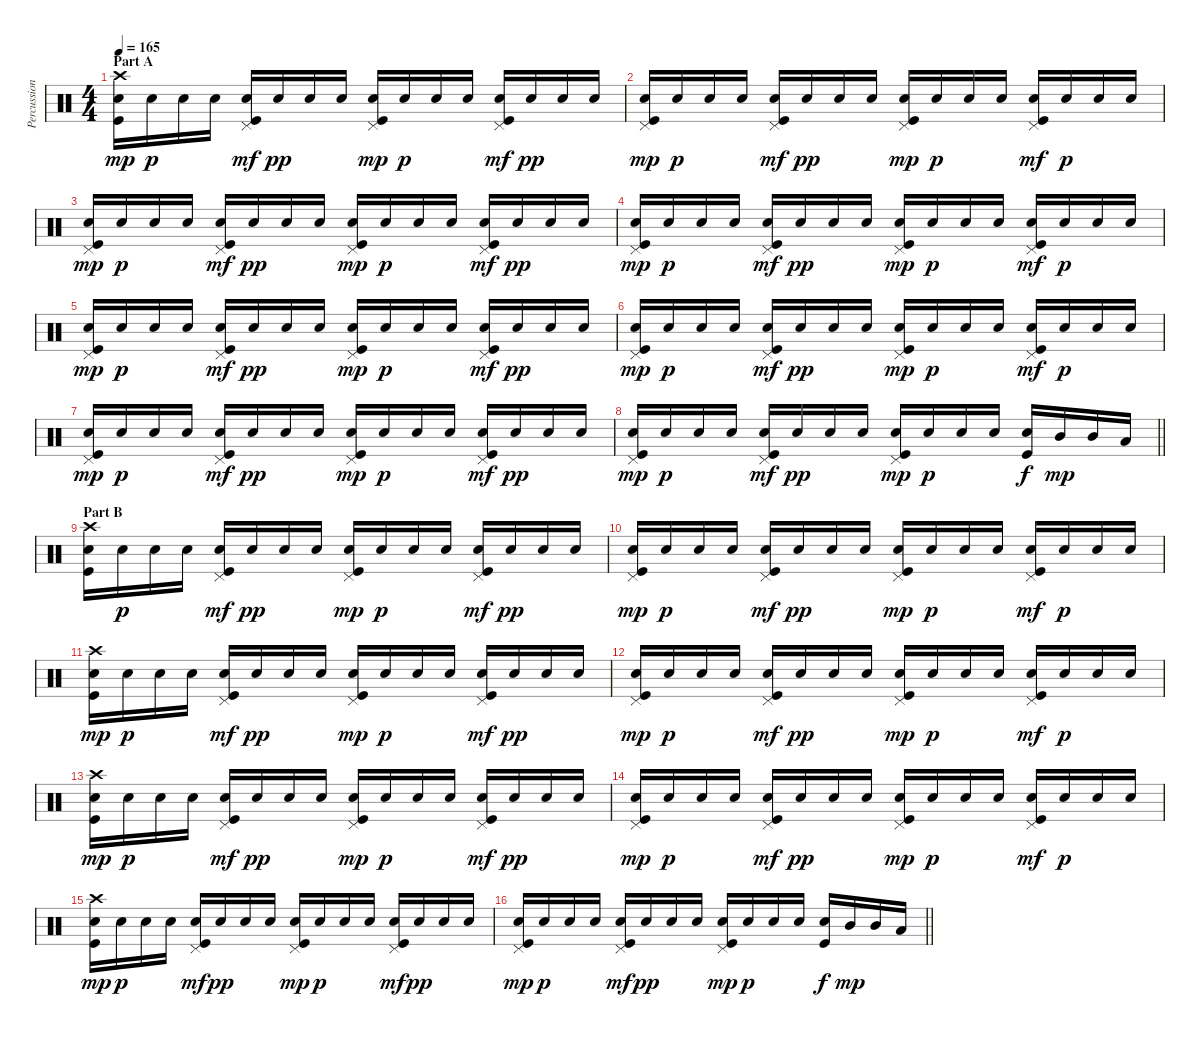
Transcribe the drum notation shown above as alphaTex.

\track ("Percussion" "Percussion") {instrument percussion}
\staff {score}
\articulation defaults
\ts (4 4)
\section ("" "Part A")
\tempo 165
\clef neutral
\ks c
("Crash high (hit)" "Electric Snare (hit)" "Kick (hit)").16{dy mp} "Electric Snare (hit)".16{dy p} "Electric Snare (hit)".16 "Electric Snare (hit)".16 ("Pedal Hi-Hat (hit)" "Electric Snare (hit)" "Kick (hit)").16{dy mf} "Electric Snare (hit)".16{dy pp} "Electric Snare (hit)".16 "Electric Snare (hit)".16 ("Pedal Hi-Hat (hit)" "Electric Snare (hit)" "Kick (hit)").16{dy mp} "Electric Snare (hit)".16{dy p} "Electric Snare (hit)".16 "Electric Snare (hit)".16 ("Pedal Hi-Hat (hit)" "Electric Snare (hit)" "Kick (hit)").16{dy mf} "Electric Snare (hit)".16{dy pp} "Electric Snare (hit)".16 "Electric Snare (hit)".16 |
("Pedal Hi-Hat (hit)" "Electric Snare (hit)" "Kick (hit)").16{dy mp} "Electric Snare (hit)".16{dy p} "Electric Snare (hit)".16 "Electric Snare (hit)".16 ("Pedal Hi-Hat (hit)" "Electric Snare (hit)" "Kick (hit)").16{dy mf} "Electric Snare (hit)".16{dy pp} "Electric Snare (hit)".16 "Electric Snare (hit)".16 ("Pedal Hi-Hat (hit)" "Electric Snare (hit)" "Kick (hit)").16{dy mp} "Electric Snare (hit)".16{dy p} "Electric Snare (hit)".16 "Electric Snare (hit)".16 ("Pedal Hi-Hat (hit)" "Electric Snare (hit)" "Kick (hit)").16{dy mf} "Electric Snare (hit)".16{dy p} "Electric Snare (hit)".16 "Electric Snare (hit)".16 |
("Pedal Hi-Hat (hit)" "Electric Snare (hit)" "Kick (hit)").16{dy mp} "Electric Snare (hit)".16{dy p} "Electric Snare (hit)".16 "Electric Snare (hit)".16 ("Pedal Hi-Hat (hit)" "Electric Snare (hit)" "Kick (hit)").16{dy mf} "Electric Snare (hit)".16{dy pp} "Electric Snare (hit)".16 "Electric Snare (hit)".16 ("Pedal Hi-Hat (hit)" "Electric Snare (hit)" "Kick (hit)").16{dy mp} "Electric Snare (hit)".16{dy p} "Electric Snare (hit)".16 "Electric Snare (hit)".16 ("Pedal Hi-Hat (hit)" "Electric Snare (hit)" "Kick (hit)").16{dy mf} "Electric Snare (hit)".16{dy pp} "Electric Snare (hit)".16 "Electric Snare (hit)".16 |
("Pedal Hi-Hat (hit)" "Electric Snare (hit)" "Kick (hit)").16{dy mp} "Electric Snare (hit)".16{dy p} "Electric Snare (hit)".16 "Electric Snare (hit)".16 ("Pedal Hi-Hat (hit)" "Electric Snare (hit)" "Kick (hit)").16{dy mf} "Electric Snare (hit)".16{dy pp} "Electric Snare (hit)".16 "Electric Snare (hit)".16 ("Pedal Hi-Hat (hit)" "Electric Snare (hit)" "Kick (hit)").16{dy mp} "Electric Snare (hit)".16{dy p} "Electric Snare (hit)".16 "Electric Snare (hit)".16 ("Pedal Hi-Hat (hit)" "Electric Snare (hit)" "Kick (hit)").16{dy mf} "Electric Snare (hit)".16{dy p} "Electric Snare (hit)".16 "Electric Snare (hit)".16 |
("Pedal Hi-Hat (hit)" "Electric Snare (hit)" "Kick (hit)").16{dy mp} "Electric Snare (hit)".16{dy p} "Electric Snare (hit)".16 "Electric Snare (hit)".16 ("Pedal Hi-Hat (hit)" "Electric Snare (hit)" "Kick (hit)").16{dy mf} "Electric Snare (hit)".16{dy pp} "Electric Snare (hit)".16 "Electric Snare (hit)".16 ("Pedal Hi-Hat (hit)" "Electric Snare (hit)" "Kick (hit)").16{dy mp} "Electric Snare (hit)".16{dy p} "Electric Snare (hit)".16 "Electric Snare (hit)".16 ("Pedal Hi-Hat (hit)" "Electric Snare (hit)" "Kick (hit)").16{dy mf} "Electric Snare (hit)".16{dy pp} "Electric Snare (hit)".16 "Electric Snare (hit)".16 |
("Pedal Hi-Hat (hit)" "Electric Snare (hit)" "Kick (hit)").16{dy mp} "Electric Snare (hit)".16{dy p} "Electric Snare (hit)".16 "Electric Snare (hit)".16 ("Pedal Hi-Hat (hit)" "Electric Snare (hit)" "Kick (hit)").16{dy mf} "Electric Snare (hit)".16{dy pp} "Electric Snare (hit)".16 "Electric Snare (hit)".16 ("Pedal Hi-Hat (hit)" "Electric Snare (hit)" "Kick (hit)").16{dy mp} "Electric Snare (hit)".16{dy p} "Electric Snare (hit)".16 "Electric Snare (hit)".16 ("Pedal Hi-Hat (hit)" "Electric Snare (hit)" "Kick (hit)").16{dy mf} "Electric Snare (hit)".16{dy p} "Electric Snare (hit)".16 "Electric Snare (hit)".16 |
("Pedal Hi-Hat (hit)" "Electric Snare (hit)" "Kick (hit)").16{dy mp} "Electric Snare (hit)".16{dy p} "Electric Snare (hit)".16 "Electric Snare (hit)".16 ("Pedal Hi-Hat (hit)" "Electric Snare (hit)" "Kick (hit)").16{dy mf} "Electric Snare (hit)".16{dy pp} "Electric Snare (hit)".16 "Electric Snare (hit)".16 ("Pedal Hi-Hat (hit)" "Electric Snare (hit)" "Kick (hit)").16{dy mp} "Electric Snare (hit)".16{dy p} "Electric Snare (hit)".16 "Electric Snare (hit)".16 ("Pedal Hi-Hat (hit)" "Electric Snare (hit)" "Kick (hit)").16{dy mf} "Electric Snare (hit)".16{dy pp} "Electric Snare (hit)".16 "Electric Snare (hit)".16 |
\barLineRight lightlight
("Pedal Hi-Hat (hit)" "Electric Snare (hit)" "Kick (hit)").16{dy mp} "Electric Snare (hit)".16{dy p} "Electric Snare (hit)".16 "Electric Snare (hit)".16 ("Pedal Hi-Hat (hit)" "Electric Snare (hit)" "Kick (hit)").16{dy mf} "Electric Snare (hit)".16{dy pp} "Electric Snare (hit)".16 "Electric Snare (hit)".16 ("Pedal Hi-Hat (hit)" "Electric Snare (hit)" "Kick (hit)").16{dy mp} "Electric Snare (hit)".16{dy p} "Electric Snare (hit)".16 "Electric Snare (hit)".16 ("Electric Snare (hit)" "Kick (hit)").16{dy f} "Mid Tom (hit)".16{dy mp} "Mid Tom (hit)".16 "Low Tom (hit)".16 |
\section ("" "Part B")
("Crash high (hit)" "Electric Snare (hit)" "Kick (hit)").16 "Electric Snare (hit)".16{dy p} "Electric Snare (hit)".16 "Electric Snare (hit)".16 ("Pedal Hi-Hat (hit)" "Electric Snare (hit)" "Kick (hit)").16{dy mf} "Electric Snare (hit)".16{dy pp} "Electric Snare (hit)".16 "Electric Snare (hit)".16 ("Pedal Hi-Hat (hit)" "Electric Snare (hit)" "Kick (hit)").16{dy mp} "Electric Snare (hit)".16{dy p} "Electric Snare (hit)".16 "Electric Snare (hit)".16 ("Pedal Hi-Hat (hit)" "Electric Snare (hit)" "Kick (hit)").16{dy mf} "Electric Snare (hit)".16{dy pp} "Electric Snare (hit)".16 "Electric Snare (hit)".16 |
("Pedal Hi-Hat (hit)" "Electric Snare (hit)" "Kick (hit)").16{dy mp} "Electric Snare (hit)".16{dy p} "Electric Snare (hit)".16 "Electric Snare (hit)".16 ("Pedal Hi-Hat (hit)" "Electric Snare (hit)" "Kick (hit)").16{dy mf} "Electric Snare (hit)".16{dy pp} "Electric Snare (hit)".16 "Electric Snare (hit)".16 ("Pedal Hi-Hat (hit)" "Electric Snare (hit)" "Kick (hit)").16{dy mp} "Electric Snare (hit)".16{dy p} "Electric Snare (hit)".16 "Electric Snare (hit)".16 ("Pedal Hi-Hat (hit)" "Electric Snare (hit)" "Kick (hit)").16{dy mf} "Electric Snare (hit)".16{dy p} "Electric Snare (hit)".16 "Electric Snare (hit)".16 |
("Crash high (hit)" "Electric Snare (hit)" "Kick (hit)").16{dy mp} "Electric Snare (hit)".16{dy p} "Electric Snare (hit)".16 "Electric Snare (hit)".16 ("Pedal Hi-Hat (hit)" "Electric Snare (hit)" "Kick (hit)").16{dy mf} "Electric Snare (hit)".16{dy pp} "Electric Snare (hit)".16 "Electric Snare (hit)".16 ("Pedal Hi-Hat (hit)" "Electric Snare (hit)" "Kick (hit)").16{dy mp} "Electric Snare (hit)".16{dy p} "Electric Snare (hit)".16 "Electric Snare (hit)".16 ("Pedal Hi-Hat (hit)" "Electric Snare (hit)" "Kick (hit)").16{dy mf} "Electric Snare (hit)".16{dy pp} "Electric Snare (hit)".16 "Electric Snare (hit)".16 |
("Pedal Hi-Hat (hit)" "Electric Snare (hit)" "Kick (hit)").16{dy mp} "Electric Snare (hit)".16{dy p} "Electric Snare (hit)".16 "Electric Snare (hit)".16 ("Pedal Hi-Hat (hit)" "Electric Snare (hit)" "Kick (hit)").16{dy mf} "Electric Snare (hit)".16{dy pp} "Electric Snare (hit)".16 "Electric Snare (hit)".16 ("Pedal Hi-Hat (hit)" "Electric Snare (hit)" "Kick (hit)").16{dy mp} "Electric Snare (hit)".16{dy p} "Electric Snare (hit)".16 "Electric Snare (hit)".16 ("Pedal Hi-Hat (hit)" "Electric Snare (hit)" "Kick (hit)").16{dy mf} "Electric Snare (hit)".16{dy p} "Electric Snare (hit)".16 "Electric Snare (hit)".16 |
("Crash high (hit)" "Electric Snare (hit)" "Kick (hit)").16{dy mp} "Electric Snare (hit)".16{dy p} "Electric Snare (hit)".16 "Electric Snare (hit)".16 ("Pedal Hi-Hat (hit)" "Electric Snare (hit)" "Kick (hit)").16{dy mf} "Electric Snare (hit)".16{dy pp} "Electric Snare (hit)".16 "Electric Snare (hit)".16 ("Pedal Hi-Hat (hit)" "Electric Snare (hit)" "Kick (hit)").16{dy mp} "Electric Snare (hit)".16{dy p} "Electric Snare (hit)".16 "Electric Snare (hit)".16 ("Pedal Hi-Hat (hit)" "Electric Snare (hit)" "Kick (hit)").16{dy mf} "Electric Snare (hit)".16{dy pp} "Electric Snare (hit)".16 "Electric Snare (hit)".16 |
("Pedal Hi-Hat (hit)" "Electric Snare (hit)" "Kick (hit)").16{dy mp} "Electric Snare (hit)".16{dy p} "Electric Snare (hit)".16 "Electric Snare (hit)".16 ("Pedal Hi-Hat (hit)" "Electric Snare (hit)" "Kick (hit)").16{dy mf} "Electric Snare (hit)".16{dy pp} "Electric Snare (hit)".16 "Electric Snare (hit)".16 ("Pedal Hi-Hat (hit)" "Electric Snare (hit)" "Kick (hit)").16{dy mp} "Electric Snare (hit)".16{dy p} "Electric Snare (hit)".16 "Electric Snare (hit)".16 ("Pedal Hi-Hat (hit)" "Electric Snare (hit)" "Kick (hit)").16{dy mf} "Electric Snare (hit)".16{dy p} "Electric Snare (hit)".16 "Electric Snare (hit)".16 |
("Crash high (hit)" "Electric Snare (hit)" "Kick (hit)").16{dy mp} "Electric Snare (hit)".16{dy p} "Electric Snare (hit)".16 "Electric Snare (hit)".16 ("Pedal Hi-Hat (hit)" "Electric Snare (hit)" "Kick (hit)").16{dy mf} "Electric Snare (hit)".16{dy pp} "Electric Snare (hit)".16 "Electric Snare (hit)".16 ("Pedal Hi-Hat (hit)" "Electric Snare (hit)" "Kick (hit)").16{dy mp} "Electric Snare (hit)".16{dy p} "Electric Snare (hit)".16 "Electric Snare (hit)".16 ("Pedal Hi-Hat (hit)" "Electric Snare (hit)" "Kick (hit)").16{dy mf} "Electric Snare (hit)".16{dy pp} "Electric Snare (hit)".16 "Electric Snare (hit)".16 |
\barLineRight lightlight
("Pedal Hi-Hat (hit)" "Electric Snare (hit)" "Kick (hit)").16{dy mp} "Electric Snare (hit)".16{dy p} "Electric Snare (hit)".16 "Electric Snare (hit)".16 ("Pedal Hi-Hat (hit)" "Electric Snare (hit)" "Kick (hit)").16{dy mf} "Electric Snare (hit)".16{dy pp} "Electric Snare (hit)".16 "Electric Snare (hit)".16 ("Pedal Hi-Hat (hit)" "Electric Snare (hit)" "Kick (hit)").16{dy mp} "Electric Snare (hit)".16{dy p} "Electric Snare (hit)".16 "Electric Snare (hit)".16 ("Electric Snare (hit)" "Kick (hit)").16{dy f} "Mid Tom (hit)".16{dy mp} "Mid Tom (hit)".16 "Low Tom (hit)".16
